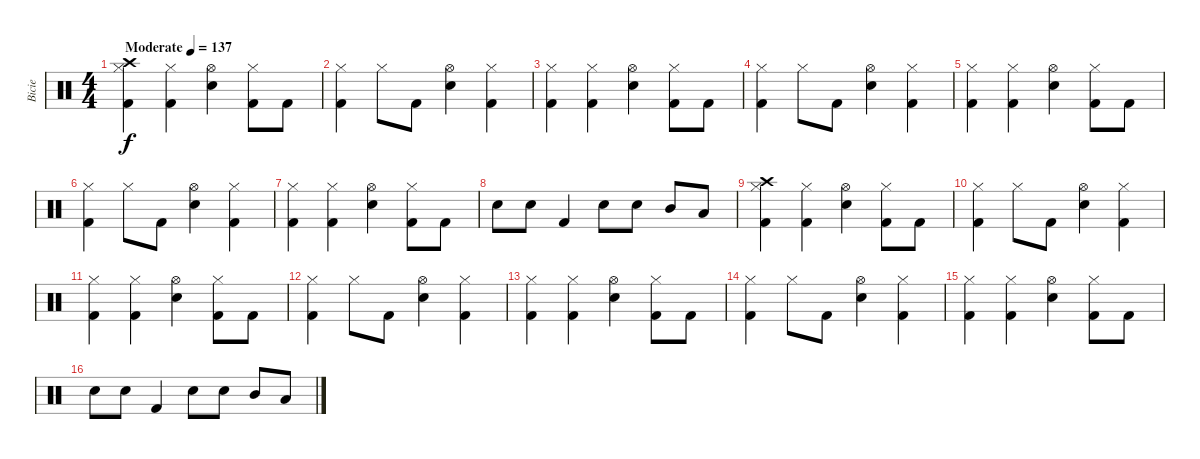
\track ("Bicie" "Bicie") {instrument percussion}
\staff {score}
\articulation defaults
\ts (4 4)
\tempo (137 "Moderate")
\clef neutral
\ks c
("Hi-Hat (closed)" "Crash high (hit)" "Kick (hit) 2").4{dy f} ("Hi-Hat (closed)" "Kick (hit) 2").4 ("Hi-Hat (open)" "Electric Snare (hit)").4 ("Hi-Hat (closed)" "Kick (hit) 2").8 "Kick (hit) 2".8 |
("Hi-Hat (closed)" "Kick (hit) 2").4 "Hi-Hat (closed)".8 "Kick (hit) 2".8 ("Hi-Hat (open)" "Electric Snare (hit)").4 ("Hi-Hat (closed)" "Kick (hit) 2").4 |
("Hi-Hat (closed)" "Kick (hit) 2").4 ("Hi-Hat (closed)" "Kick (hit) 2").4 ("Hi-Hat (open)" "Electric Snare (hit)").4 ("Hi-Hat (closed)" "Kick (hit) 2").8 "Kick (hit) 2".8 |
("Hi-Hat (closed)" "Kick (hit) 2").4 "Hi-Hat (closed)".8 "Kick (hit) 2".8 ("Hi-Hat (open)" "Electric Snare (hit)").4 ("Hi-Hat (closed)" "Kick (hit) 2").4 |
("Hi-Hat (closed)" "Kick (hit) 2").4 ("Hi-Hat (closed)" "Kick (hit) 2").4 ("Hi-Hat (open)" "Electric Snare (hit)").4 ("Hi-Hat (closed)" "Kick (hit) 2").8 "Kick (hit) 2".8 |
("Hi-Hat (closed)" "Kick (hit) 2").4 "Hi-Hat (closed)".8 "Kick (hit) 2".8 ("Hi-Hat (open)" "Electric Snare (hit)").4 ("Hi-Hat (closed)" "Kick (hit) 2").4 |
("Hi-Hat (closed)" "Kick (hit) 2").4 ("Hi-Hat (closed)" "Kick (hit) 2").4 ("Hi-Hat (open)" "Electric Snare (hit)").4 ("Hi-Hat (closed)" "Kick (hit) 2").8 "Kick (hit) 2".8 |
"Electric Snare (hit)".8 "Electric Snare (hit)".8 "Kick (hit) 2".4 "Electric Snare (hit)".8 "Electric Snare (hit)".8 "Mid Tom (hit)".8 "Low Tom (hit)".8 |
("Hi-Hat (closed)" "Crash high (hit)" "Kick (hit) 2").4 ("Hi-Hat (closed)" "Kick (hit) 2").4 ("Hi-Hat (open)" "Electric Snare (hit)").4 ("Hi-Hat (closed)" "Kick (hit) 2").8 "Kick (hit) 2".8 |
("Hi-Hat (closed)" "Kick (hit) 2").4 "Hi-Hat (closed)".8 "Kick (hit) 2".8 ("Hi-Hat (open)" "Electric Snare (hit)").4 ("Hi-Hat (closed)" "Kick (hit) 2").4 |
("Hi-Hat (closed)" "Kick (hit) 2").4 ("Hi-Hat (closed)" "Kick (hit) 2").4 ("Hi-Hat (open)" "Electric Snare (hit)").4 ("Hi-Hat (closed)" "Kick (hit) 2").8 "Kick (hit) 2".8 |
("Hi-Hat (closed)" "Kick (hit) 2").4 "Hi-Hat (closed)".8 "Kick (hit) 2".8 ("Hi-Hat (open)" "Electric Snare (hit)").4 ("Hi-Hat (closed)" "Kick (hit) 2").4 |
("Hi-Hat (closed)" "Kick (hit) 2").4 ("Hi-Hat (closed)" "Kick (hit) 2").4 ("Hi-Hat (open)" "Electric Snare (hit)").4 ("Hi-Hat (closed)" "Kick (hit) 2").8 "Kick (hit) 2".8 |
("Hi-Hat (closed)" "Kick (hit) 2").4 "Hi-Hat (closed)".8 "Kick (hit) 2".8 ("Hi-Hat (open)" "Electric Snare (hit)").4 ("Hi-Hat (closed)" "Kick (hit) 2").4 |
("Hi-Hat (closed)" "Kick (hit) 2").4 ("Hi-Hat (closed)" "Kick (hit) 2").4 ("Hi-Hat (open)" "Electric Snare (hit)").4 ("Hi-Hat (closed)" "Kick (hit) 2").8 "Kick (hit) 2".8 |
"Electric Snare (hit)".8 "Electric Snare (hit)".8 "Kick (hit) 2".4 "Electric Snare (hit)".8 "Electric Snare (hit)".8 "Mid Tom (hit)".8 "Low Tom (hit)".8
